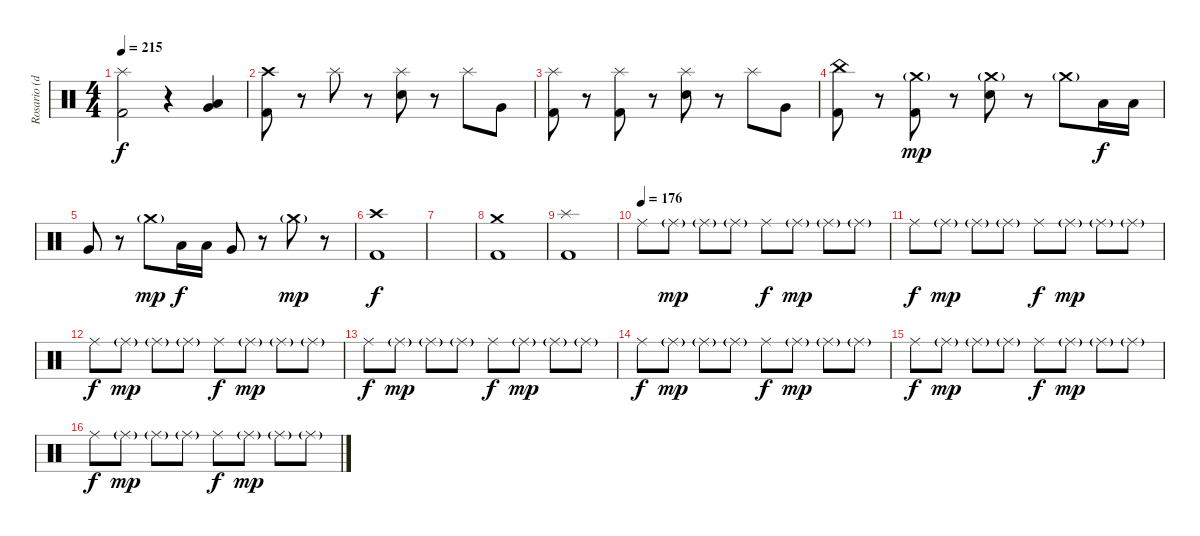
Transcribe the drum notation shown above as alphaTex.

\track ("Rosario (drum)" "Rosario (d") {instrument percussion}
\staff {score}
\articulation defaults
\ts (4 4)
\tempo 215
\clef neutral
\ks c
("Splash (hit)" "Kick (hit) 2").2{dy f} r.4 ("Low Tom (hit)" "Very Low Tom (hit)").4 |
("Crash high (hit)" "Kick (hit) 2").8 r.8 "Splash (hit)".8 r.8 ("Splash (hit)" "Electric Snare (hit)").8 r.8 "Splash (hit)".8 "Very Low Tom (hit)".8 |
("Splash (hit)" "Kick (hit) 2").8 r.8 ("Splash (hit)" "Kick (hit) 2").8 r.8 ("Splash (hit)" "Electric Snare (hit)").8 r.8 "Splash (hit)".8 "Very Low Tom (hit)".8 |
("China (hit)" "Kick (hit) 2").8 r.8 ("Crash medium (hit)"{g} "Kick (hit) 2").8{dy mp} r.8 ("Crash medium (hit)"{g} "Electric Snare (hit)").8 r.8 "Crash medium (hit)"{g}.8 "Low Tom (hit)".16{dy f} "Low Tom (hit)".16 |
"Very Low Tom (hit)".8 r.8 "Crash medium (hit)"{g}.8{dy mp} "Low Tom (hit)".16{dy f} "Low Tom (hit)".16 "Very Low Tom (hit)".8 r.8 "Crash medium (hit)"{g}.8{dy mp} r.8 |
("Crash high (hit)" "Kick (hit) 2").1{dy f} |
|
("Crash medium (hit)" "Kick (hit) 2").1 |
("Splash (hit)" "Kick (hit) 2").1 |
\tempo (176)
"Ride (middle)".8{volume 3} "Ride (middle)"{g}.8{dy mp volume 10} "Ride (middle)"{g}.8 "Ride (middle)"{g}.8 "Ride (middle)".8{dy f} "Ride (middle)"{g}.8{dy mp} "Ride (middle)"{g}.8 "Ride (middle)"{g}.8 |
"Ride (middle)".8{dy f} "Ride (middle)"{g}.8{dy mp} "Ride (middle)"{g}.8 "Ride (middle)"{g}.8 "Ride (middle)".8{dy f} "Ride (middle)"{g}.8{dy mp} "Ride (middle)"{g}.8 "Ride (middle)"{g}.8 |
"Ride (middle)".8{dy f} "Ride (middle)"{g}.8{dy mp} "Ride (middle)"{g}.8 "Ride (middle)"{g}.8 "Ride (middle)".8{dy f} "Ride (middle)"{g}.8{dy mp} "Ride (middle)"{g}.8 "Ride (middle)"{g}.8 |
"Ride (middle)".8{dy f} "Ride (middle)"{g}.8{dy mp} "Ride (middle)"{g}.8 "Ride (middle)"{g}.8 "Ride (middle)".8{dy f} "Ride (middle)"{g}.8{dy mp} "Ride (middle)"{g}.8 "Ride (middle)"{g}.8 |
"Ride (middle)".8{dy f} "Ride (middle)"{g}.8{dy mp} "Ride (middle)"{g}.8 "Ride (middle)"{g}.8 "Ride (middle)".8{dy f} "Ride (middle)"{g}.8{dy mp} "Ride (middle)"{g}.8 "Ride (middle)"{g}.8 |
"Ride (middle)".8{dy f} "Ride (middle)"{g}.8{dy mp} "Ride (middle)"{g}.8 "Ride (middle)"{g}.8 "Ride (middle)".8{dy f} "Ride (middle)"{g}.8{dy mp} "Ride (middle)"{g}.8 "Ride (middle)"{g}.8 |
"Ride (middle)".8{dy f} "Ride (middle)"{g}.8{dy mp} "Ride (middle)"{g}.8 "Ride (middle)"{g}.8 "Ride (middle)".8{dy f} "Ride (middle)"{g}.8{dy mp} "Ride (middle)"{g}.8 "Ride (middle)"{g}.8
